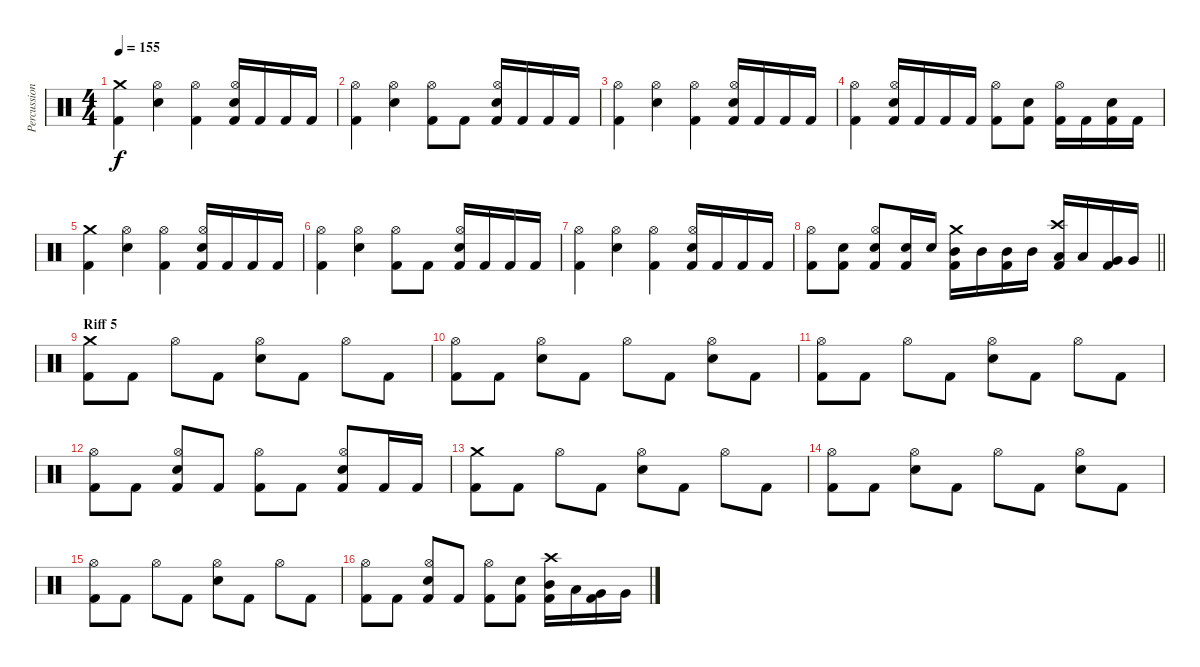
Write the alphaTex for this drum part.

\track ("Percussion" "Percussion") {instrument percussion}
\staff {score}
\articulation defaults
\ts (4 4)
\tempo 155
\clef neutral
\ks c
("Crash medium (hit)" "Kick (hit) 2").4{dy f} ("Hi-Hat (open)" "Snare (hit) 2").4 ("Hi-Hat (open)" "Kick (hit) 2").4 ("Kick (hit) 2" "Hi-Hat (open)" "Snare (hit) 2").16 "Kick (hit) 2".16 "Kick (hit) 2".16 "Kick (hit) 2".16 |
("Hi-Hat (open)" "Kick (hit) 2").4 ("Hi-Hat (open)" "Snare (hit) 2").4 ("Hi-Hat (open)" "Kick (hit) 2").8 "Kick (hit) 2".8 ("Kick (hit) 2" "Hi-Hat (open)" "Snare (hit) 2").16 "Kick (hit) 2".16 "Kick (hit) 2".16 "Kick (hit) 2".16 |
("Hi-Hat (open)" "Kick (hit) 2").4 ("Hi-Hat (open)" "Snare (hit) 2").4 ("Hi-Hat (open)" "Kick (hit) 2").4 ("Kick (hit) 2" "Hi-Hat (open)" "Snare (hit) 2").16 "Kick (hit) 2".16 "Kick (hit) 2".16 "Kick (hit) 2".16 |
("Hi-Hat (open)" "Kick (hit) 2").4 ("Kick (hit) 2" "Hi-Hat (open)" "Snare (hit) 2").16 "Kick (hit) 2".16 "Kick (hit) 2".16 "Kick (hit) 2".16 ("Hi-Hat (open)" "Kick (hit) 2").8 ("Kick (hit) 2" "Snare (hit) 2").8 ("Hi-Hat (open)" "Kick (hit) 2").16 "Kick (hit) 2".16 ("Kick (hit) 2" "Snare (hit) 2").16 "Kick (hit) 2".16 |
("Crash medium (hit)" "Kick (hit) 2").4 ("Hi-Hat (open)" "Snare (hit) 2").4 ("Hi-Hat (open)" "Kick (hit) 2").4 ("Kick (hit) 2" "Hi-Hat (open)" "Snare (hit) 2").16 "Kick (hit) 2".16 "Kick (hit) 2".16 "Kick (hit) 2".16 |
("Hi-Hat (open)" "Kick (hit) 2").4 ("Hi-Hat (open)" "Snare (hit) 2").4 ("Hi-Hat (open)" "Kick (hit) 2").8 "Kick (hit) 2".8 ("Kick (hit) 2" "Hi-Hat (open)" "Snare (hit) 2").16 "Kick (hit) 2".16 "Kick (hit) 2".16 "Kick (hit) 2".16 |
("Hi-Hat (open)" "Kick (hit) 2").4 ("Hi-Hat (open)" "Snare (hit) 2").4 ("Hi-Hat (open)" "Kick (hit) 2").4 ("Kick (hit) 2" "Hi-Hat (open)" "Snare (hit) 2").16 "Kick (hit) 2".16 "Kick (hit) 2".16 "Kick (hit) 2".16 |
\barLineRight lightlight
("Hi-Hat (open)" "Kick (hit) 2").8 ("Kick (hit) 2" "Snare (hit) 2").8 ("Kick (hit) 2" "Hi-Hat (open)" "Snare (hit) 2").8 ("Kick (hit) 2" "Snare (hit) 2").16 "Snare (hit) 2".16 ("Kick (hit) 2" "Crash medium (hit)" "Mid Tom (hit)").16 "Mid Tom (hit)".16 ("Kick (hit) 2" "Mid Tom (hit)").16 "Mid Tom (hit)".16 ("Kick (hit) 2" "Crash high (hit)" "Low Tom (hit)").16 "Low Tom (hit)".16 ("Kick (hit) 2" "Very Low Tom (hit)").16 "Very Low Tom (hit)".16 |
\section ("" "Riff 5")
("Crash medium (hit)" "Kick (hit) 2").8 "Kick (hit) 2".8 "Hi-Hat (open)".8 "Kick (hit) 2".8 ("Hi-Hat (open)" "Snare (hit) 2").8 "Kick (hit) 2".8 "Hi-Hat (open)".8 "Kick (hit) 2".8 |
("Hi-Hat (open)" "Kick (hit) 2").8 "Kick (hit) 2".8 ("Hi-Hat (open)" "Snare (hit) 2").8 "Kick (hit) 2".8 "Hi-Hat (open)".8 "Kick (hit) 2".8 ("Hi-Hat (open)" "Snare (hit) 2").8 "Kick (hit) 2".8 |
("Hi-Hat (open)" "Kick (hit) 2").8 "Kick (hit) 2".8 "Hi-Hat (open)".8 "Kick (hit) 2".8 ("Hi-Hat (open)" "Snare (hit) 2").8 "Kick (hit) 2".8 "Hi-Hat (open)".8 "Kick (hit) 2".8 |
("Hi-Hat (open)" "Kick (hit) 2").8 "Kick (hit) 2".8 ("Kick (hit) 2" "Hi-Hat (open)" "Snare (hit) 2").8 "Kick (hit) 2".8 ("Hi-Hat (open)" "Kick (hit) 2").8 "Kick (hit) 2".8 ("Kick (hit) 2" "Hi-Hat (open)" "Snare (hit) 2").8 "Kick (hit) 2".16 "Kick (hit) 2".16 |
("Crash medium (hit)" "Kick (hit) 2").8 "Kick (hit) 2".8 "Hi-Hat (open)".8 "Kick (hit) 2".8 ("Hi-Hat (open)" "Snare (hit) 2").8 "Kick (hit) 2".8 "Hi-Hat (open)".8 "Kick (hit) 2".8 |
("Hi-Hat (open)" "Kick (hit) 2").8 "Kick (hit) 2".8 ("Hi-Hat (open)" "Snare (hit) 2").8 "Kick (hit) 2".8 "Hi-Hat (open)".8 "Kick (hit) 2".8 ("Hi-Hat (open)" "Snare (hit) 2").8 "Kick (hit) 2".8 |
("Hi-Hat (open)" "Kick (hit) 2").8 "Kick (hit) 2".8 "Hi-Hat (open)".8 "Kick (hit) 2".8 ("Hi-Hat (open)" "Snare (hit) 2").8 "Kick (hit) 2".8 "Hi-Hat (open)".8 "Kick (hit) 2".8 |
("Hi-Hat (open)" "Kick (hit) 2").8 "Kick (hit) 2".8 ("Kick (hit) 2" "Hi-Hat (open)" "Snare (hit) 2").8 "Kick (hit) 2".8 ("Hi-Hat (open)" "Kick (hit) 2").8 ("Kick (hit) 2" "Snare (hit) 2").8 ("Kick (hit) 2" "Crash high (hit)" "Mid Tom (hit)").16 "Low Tom (hit)".16 ("Kick (hit) 2" "Very Low Tom (hit)").16 "Very Low Tom (hit)".16
